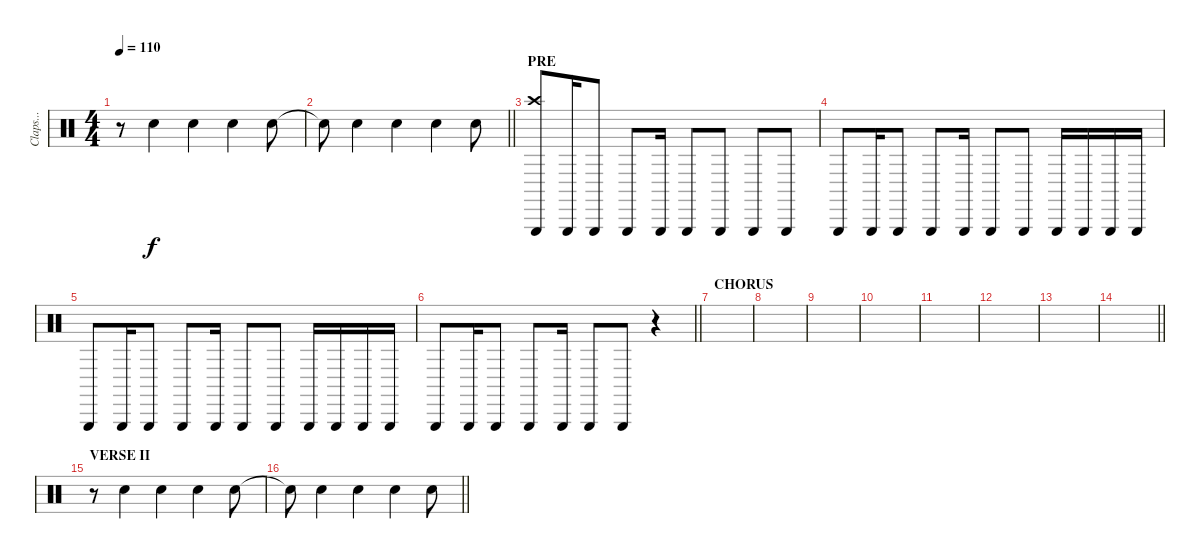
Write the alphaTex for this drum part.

\track ("Claps..." "Claps...") {instrument percussion}
\staff {score}
\articulation defaults
\ts (4 4)
\tempo 110
\clef neutral
\ks c
r.8{dy f} "Hand Clap (hit)".4 "Hand Clap (hit)".4 "Hand Clap (hit)".4 "Hand Clap (hit)".8 |
\barLineRight lightlight "Hand Clap (hit)"{t}.8 "Hand Clap (hit)".4 "Hand Clap (hit)".4 "Hand Clap (hit)".4 "Hand Clap (hit)".8
|
\section ("" "PRE")
("Triangle (hit)" "Crash high (hit)").8 "Triangle (hit)".16 "Triangle (hit)".8 "Triangle (hit)".8 "Triangle (hit)".16 "Triangle (hit)".8 "Triangle (hit)".8 "Triangle (hit)".8 "Triangle (hit)".8 |
"Triangle (hit)".8 "Triangle (hit)".16 "Triangle (hit)".8 "Triangle (hit)".8 "Triangle (hit)".16 "Triangle (hit)".8 "Triangle (hit)".8 "Triangle (hit)".16 "Triangle (hit)".16 "Triangle (hit)".16 "Triangle (hit)".16 |
"Triangle (hit)".8 "Triangle (hit)".16 "Triangle (hit)".8 "Triangle (hit)".8 "Triangle (hit)".16 "Triangle (hit)".8 "Triangle (hit)".8 "Triangle (hit)".16 "Triangle (hit)".16 "Triangle (hit)".16 "Triangle (hit)".16 |
\barLineRight lightlight "Triangle (hit)".8 "Triangle (hit)".16 "Triangle (hit)".8 "Triangle (hit)".8 "Triangle (hit)".16 "Triangle (hit)".8 "Triangle (hit)".8
r.4 |
\section ("" "CHORUS")
|
|
|
|
|
|
|
\barLineRight lightlight
|
\section ("" "VERSE II")
r.8 "Hand Clap (hit)".4 "Hand Clap (hit)".4 "Hand Clap (hit)".4 "Hand Clap (hit)".8 |
\barLineRight lightlight "Hand Clap (hit)"{t}.8 "Hand Clap (hit)".4 "Hand Clap (hit)".4 "Hand Clap (hit)".4 "Hand Clap (hit)".8
